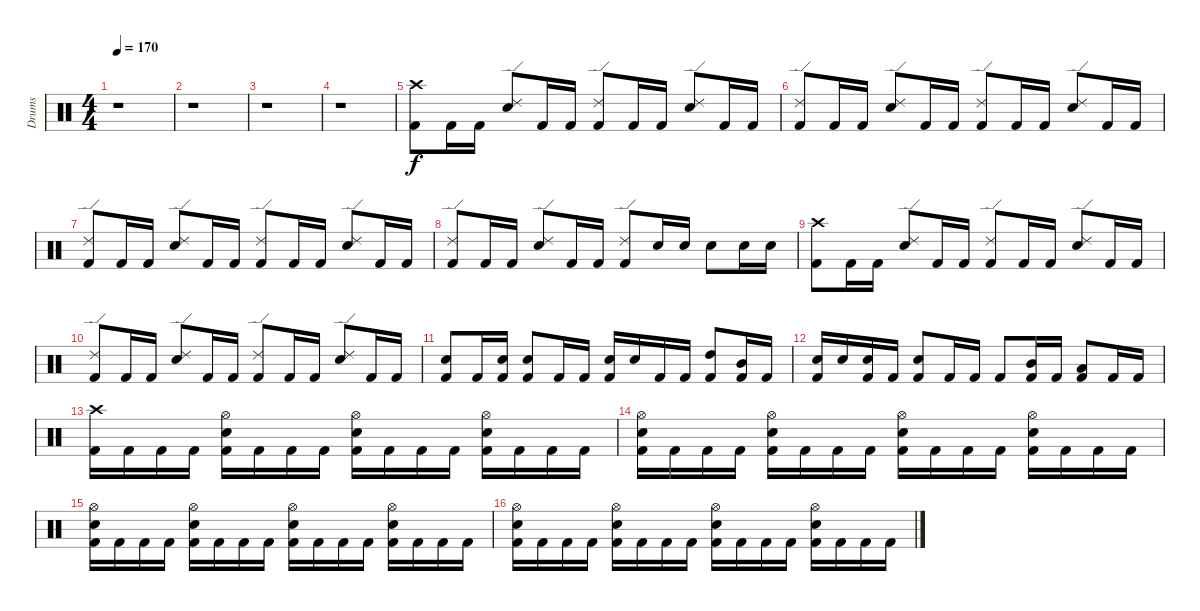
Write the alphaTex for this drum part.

\track ("Drums" "Drums") {instrument percussion}
\staff {score}
\articulation defaults
\ts (4 4)
\tempo 170
\clef neutral
\ks c
r.1{dy f} |
r.1 |
r.1 |
r.1 |
\section ("" "")
("Kick (hit) 2" "Crash high (hit)").8 "Kick (hit) 2".16 "Kick (hit) 2".16 ("Electric Snare (hit)" "Ride (edge) 2").8 "Kick (hit) 2".16 "Kick (hit) 2".16 ("Kick (hit) 2" "Ride (edge) 2").8 "Kick (hit) 2".16 "Kick (hit) 2".16 ("Electric Snare (hit)" "Ride (edge) 2").8 "Kick (hit) 2".16 "Kick (hit) 2".16 |
("Kick (hit) 2" "Ride (edge) 2").8 "Kick (hit) 2".16 "Kick (hit) 2".16 ("Electric Snare (hit)" "Ride (edge) 2").8 "Kick (hit) 2".16 "Kick (hit) 2".16 ("Kick (hit) 2" "Ride (edge) 2").8 "Kick (hit) 2".16 "Kick (hit) 2".16 ("Electric Snare (hit)" "Ride (edge) 2").8 "Kick (hit) 2".16 "Kick (hit) 2".16 |
("Kick (hit) 2" "Ride (edge) 2").8 "Kick (hit) 2".16 "Kick (hit) 2".16 ("Electric Snare (hit)" "Ride (edge) 2").8 "Kick (hit) 2".16 "Kick (hit) 2".16 ("Kick (hit) 2" "Ride (edge) 2").8 "Kick (hit) 2".16 "Kick (hit) 2".16 ("Electric Snare (hit)" "Ride (edge) 2").8 "Kick (hit) 2".16 "Kick (hit) 2".16 |
("Kick (hit) 2" "Ride (edge) 2").8 "Kick (hit) 2".16 "Kick (hit) 2".16 ("Electric Snare (hit)" "Ride (edge) 2").8 "Kick (hit) 2".16 "Kick (hit) 2".16 ("Kick (hit) 2" "Ride (edge) 2").8 "Electric Snare (hit)".16 "Electric Snare (hit)".16 "Electric Snare (hit)".8 "Electric Snare (hit)".16 "Electric Snare (hit)".16 |
("Kick (hit) 2" "Crash high (hit)").8 "Kick (hit) 2".16 "Kick (hit) 2".16 ("Electric Snare (hit)" "Ride (edge) 2").8 "Kick (hit) 2".16 "Kick (hit) 2".16 ("Kick (hit) 2" "Ride (edge) 2").8 "Kick (hit) 2".16 "Kick (hit) 2".16 ("Electric Snare (hit)" "Ride (edge) 2").8 "Kick (hit) 2".16 "Kick (hit) 2".16 |
("Kick (hit) 2" "Ride (edge) 2").8 "Kick (hit) 2".16 "Kick (hit) 2".16 ("Electric Snare (hit)" "Ride (edge) 2").8 "Kick (hit) 2".16 "Kick (hit) 2".16 ("Kick (hit) 2" "Ride (edge) 2").8 "Kick (hit) 2".16 "Kick (hit) 2".16 ("Electric Snare (hit)" "Ride (edge) 2").8 "Kick (hit) 2".16 "Kick (hit) 2".16 |
("Kick (hit) 2" "Electric Snare (hit)").8 "Kick (hit) 2".16 ("Kick (hit) 2" "Electric Snare (hit)").16 ("Kick (hit) 2" "Electric Snare (hit)").8 "Kick (hit) 2".16 "Kick (hit) 2".16 ("Kick (hit) 2" "Electric Snare (hit)").16 "Electric Snare (hit)".16 "Kick (hit) 2".16 "Kick (hit) 2".16 ("Kick (hit) 2" "High Tom (hit)").8 ("Kick (hit) 2" "Mid Tom (hit)").16 "Kick (hit) 2".16 |
("Kick (hit) 2" "Electric Snare (hit)").16 "Electric Snare (hit)".16 ("Kick (hit) 2" "Electric Snare (hit)").16 "Kick (hit) 2".16 ("Kick (hit) 2" "Electric Snare (hit)").8 "Kick (hit) 2".16 "Kick (hit) 2".16 "Kick (hit) 2".8 ("Kick (hit) 2" "Mid Tom (hit)").16 "Kick (hit) 2".16 ("Kick (hit) 2" "Low Tom (hit)").8 "Kick (hit) 2".16 "Kick (hit) 2".16 |
\section ("" "")
("Kick (hit) 2" "Crash high (hit)").16 "Kick (hit) 2".16 "Kick (hit) 2".16 "Kick (hit) 2".16 ("Kick (hit) 2" "Electric Snare (hit)" "Hi-Hat (open)").16 "Kick (hit) 2".16 "Kick (hit) 2".16 "Kick (hit) 2".16 ("Kick (hit) 2" "Electric Snare (hit)" "Hi-Hat (open)").16 "Kick (hit) 2".16 "Kick (hit) 2".16 "Kick (hit) 2".16 ("Kick (hit) 2" "Electric Snare (hit)" "Hi-Hat (open)").16 "Kick (hit) 2".16 "Kick (hit) 2".16 "Kick (hit) 2".16 |
("Kick (hit) 2" "Electric Snare (hit)" "Hi-Hat (open)").16 "Kick (hit) 2".16 "Kick (hit) 2".16 "Kick (hit) 2".16 ("Kick (hit) 2" "Electric Snare (hit)" "Hi-Hat (open)").16 "Kick (hit) 2".16 "Kick (hit) 2".16 "Kick (hit) 2".16 ("Kick (hit) 2" "Electric Snare (hit)" "Hi-Hat (open)").16 "Kick (hit) 2".16 "Kick (hit) 2".16 "Kick (hit) 2".16 ("Kick (hit) 2" "Electric Snare (hit)" "Hi-Hat (open)").16 "Kick (hit) 2".16 "Kick (hit) 2".16 "Kick (hit) 2".16 |
("Kick (hit) 2" "Electric Snare (hit)" "Hi-Hat (open)").16 "Kick (hit) 2".16 "Kick (hit) 2".16 "Kick (hit) 2".16 ("Kick (hit) 2" "Electric Snare (hit)" "Hi-Hat (open)").16 "Kick (hit) 2".16 "Kick (hit) 2".16 "Kick (hit) 2".16 ("Kick (hit) 2" "Electric Snare (hit)" "Hi-Hat (open)").16 "Kick (hit) 2".16 "Kick (hit) 2".16 "Kick (hit) 2".16 ("Kick (hit) 2" "Electric Snare (hit)" "Hi-Hat (open)").16 "Kick (hit) 2".16 "Kick (hit) 2".16 "Kick (hit) 2".16 |
("Kick (hit) 2" "Electric Snare (hit)" "Hi-Hat (open)").16 "Kick (hit) 2".16 "Kick (hit) 2".16 "Kick (hit) 2".16 ("Kick (hit) 2" "Electric Snare (hit)" "Hi-Hat (open)").16 "Kick (hit) 2".16 "Kick (hit) 2".16 "Kick (hit) 2".16 ("Kick (hit) 2" "Electric Snare (hit)" "Hi-Hat (open)").16 "Kick (hit) 2".16 "Kick (hit) 2".16 "Kick (hit) 2".16 ("Kick (hit) 2" "Electric Snare (hit)" "Hi-Hat (open)").16 "Kick (hit) 2".16 "Kick (hit) 2".16 "Kick (hit) 2".16
